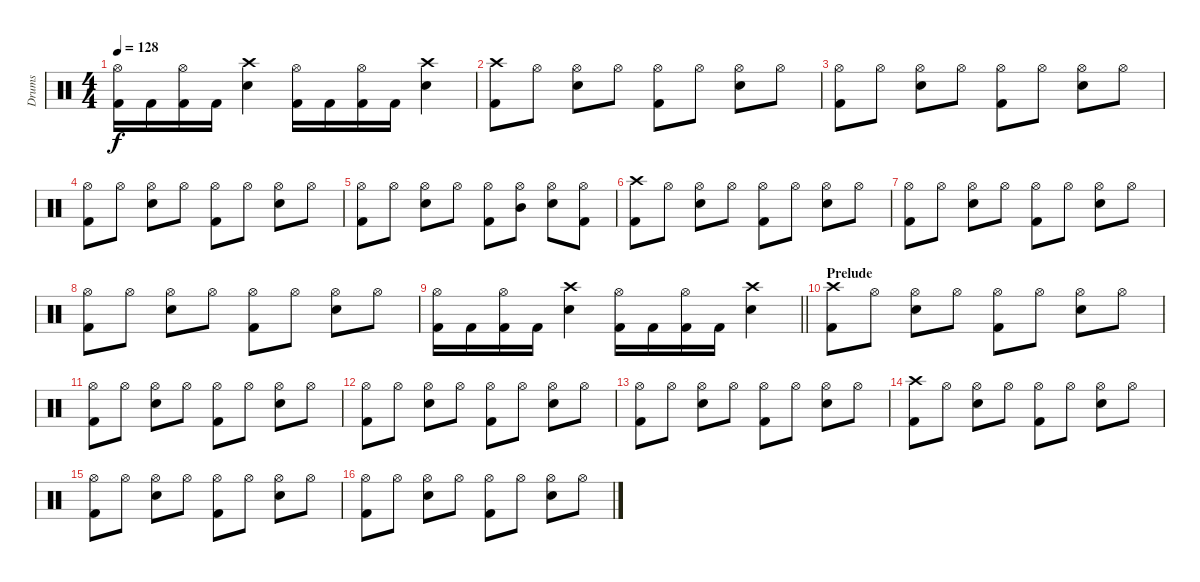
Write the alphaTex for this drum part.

\track ("Drums" "Drums") {instrument percussion}
\staff {score}
\articulation defaults
\ts (4 4)
\tempo 128
\clef neutral
\ks c
("Hi-Hat (open)" "Kick (hit) 2").16{dy f} "Kick (hit) 2".16 ("Hi-Hat (open)" "Kick (hit) 2").16 "Kick (hit) 2".16 ("Crash high (hit)" "Snare (hit) 2").4 ("Hi-Hat (open)" "Kick (hit) 2").16 "Kick (hit) 2".16 ("Hi-Hat (open)" "Kick (hit) 2").16 "Kick (hit) 2".16 ("Crash high (hit)" "Snare (hit) 2").4 |
("Crash high (hit)" "Kick (hit) 2").8 "Hi-Hat (open)".8 ("Hi-Hat (open)" "Snare (hit) 2").8 "Hi-Hat (open)".8 ("Hi-Hat (open)" "Kick (hit) 2").8 "Hi-Hat (open)".8 ("Hi-Hat (open)" "Snare (hit) 2").8 "Hi-Hat (open)".8 |
("Hi-Hat (open)" "Kick (hit) 2").8 "Hi-Hat (open)".8 ("Hi-Hat (open)" "Snare (hit) 2").8 "Hi-Hat (open)".8 ("Hi-Hat (open)" "Kick (hit) 2").8 "Hi-Hat (open)".8 ("Hi-Hat (open)" "Snare (hit) 2").8 "Hi-Hat (open)".8 |
("Hi-Hat (open)" "Kick (hit) 2").8 "Hi-Hat (open)".8 ("Hi-Hat (open)" "Snare (hit) 2").8 "Hi-Hat (open)".8 ("Hi-Hat (open)" "Kick (hit) 2").8 "Hi-Hat (open)".8 ("Hi-Hat (open)" "Snare (hit) 2").8 "Hi-Hat (open)".8 |
("Hi-Hat (open)" "Kick (hit) 2").8 "Hi-Hat (open)".8 ("Hi-Hat (open)" "Snare (hit) 2").8 "Hi-Hat (open)".8 ("Hi-Hat (open)" "Kick (hit) 2").8 ("Hi-Hat (open)" "Mid Tom (hit)").8 ("Hi-Hat (open)" "Snare (hit) 2").8 ("Hi-Hat (open)" "Kick (hit) 2").8 |
("Crash high (hit)" "Kick (hit) 2").8 "Hi-Hat (open)".8 ("Hi-Hat (open)" "Snare (hit) 2").8 "Hi-Hat (open)".8 ("Hi-Hat (open)" "Kick (hit) 2").8 "Hi-Hat (open)".8 ("Hi-Hat (open)" "Snare (hit) 2").8 "Hi-Hat (open)".8 |
("Hi-Hat (open)" "Kick (hit) 2").8 "Hi-Hat (open)".8 ("Hi-Hat (open)" "Snare (hit) 2").8 "Hi-Hat (open)".8 ("Hi-Hat (open)" "Kick (hit) 2").8 "Hi-Hat (open)".8 ("Hi-Hat (open)" "Snare (hit) 2").8 "Hi-Hat (open)".8 |
("Hi-Hat (open)" "Kick (hit) 2").8 "Hi-Hat (open)".8 ("Hi-Hat (open)" "Snare (hit) 2").8 "Hi-Hat (open)".8 ("Hi-Hat (open)" "Kick (hit) 2").8 "Hi-Hat (open)".8 ("Hi-Hat (open)" "Snare (hit) 2").8 "Hi-Hat (open)".8 |
\barLineRight lightlight
("Hi-Hat (open)" "Kick (hit) 2").16 "Kick (hit) 2".16 ("Hi-Hat (open)" "Kick (hit) 2").16 "Kick (hit) 2".16 ("Crash high (hit)" "Snare (hit) 2").4 ("Hi-Hat (open)" "Kick (hit) 2").16 "Kick (hit) 2".16 ("Hi-Hat (open)" "Kick (hit) 2").16 "Kick (hit) 2".16 ("Crash high (hit)" "Snare (hit) 2").4 |
\section ("" "Prelude")
("Crash high (hit)" "Kick (hit) 2").8 "Hi-Hat (open)".8 ("Hi-Hat (open)" "Snare (hit) 2").8 "Hi-Hat (open)".8 ("Hi-Hat (open)" "Kick (hit) 2").8 "Hi-Hat (open)".8 ("Hi-Hat (open)" "Snare (hit) 2").8 "Hi-Hat (open)".8 |
("Hi-Hat (open)" "Kick (hit) 2").8 "Hi-Hat (open)".8 ("Hi-Hat (open)" "Snare (hit) 2").8 "Hi-Hat (open)".8 ("Hi-Hat (open)" "Kick (hit) 2").8 "Hi-Hat (open)".8 ("Hi-Hat (open)" "Snare (hit) 2").8 "Hi-Hat (open)".8 |
("Hi-Hat (open)" "Kick (hit) 2").8 "Hi-Hat (open)".8 ("Hi-Hat (open)" "Snare (hit) 2").8 "Hi-Hat (open)".8 ("Hi-Hat (open)" "Kick (hit) 2").8 "Hi-Hat (open)".8 ("Hi-Hat (open)" "Snare (hit) 2").8 "Hi-Hat (open)".8 |
("Hi-Hat (open)" "Kick (hit) 2").8 "Hi-Hat (open)".8 ("Hi-Hat (open)" "Snare (hit) 2").8 "Hi-Hat (open)".8 ("Hi-Hat (open)" "Kick (hit) 2").8 "Hi-Hat (open)".8 ("Hi-Hat (open)" "Snare (hit) 2").8 "Hi-Hat (open)".8 |
("Crash high (hit)" "Kick (hit) 2").8 "Hi-Hat (open)".8 ("Hi-Hat (open)" "Snare (hit) 2").8 "Hi-Hat (open)".8 ("Hi-Hat (open)" "Kick (hit) 2").8 "Hi-Hat (open)".8 ("Hi-Hat (open)" "Snare (hit) 2").8 "Hi-Hat (open)".8 |
("Hi-Hat (open)" "Kick (hit) 2").8 "Hi-Hat (open)".8 ("Hi-Hat (open)" "Snare (hit) 2").8 "Hi-Hat (open)".8 ("Hi-Hat (open)" "Kick (hit) 2").8 "Hi-Hat (open)".8 ("Hi-Hat (open)" "Snare (hit) 2").8 "Hi-Hat (open)".8 |
("Hi-Hat (open)" "Kick (hit) 2").8 "Hi-Hat (open)".8 ("Hi-Hat (open)" "Snare (hit) 2").8 "Hi-Hat (open)".8 ("Hi-Hat (open)" "Kick (hit) 2").8 "Hi-Hat (open)".8 ("Hi-Hat (open)" "Snare (hit) 2").8 "Hi-Hat (open)".8
